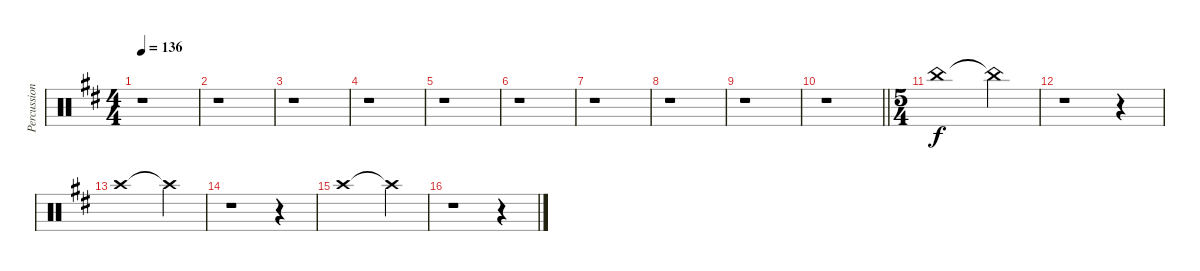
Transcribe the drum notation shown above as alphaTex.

\track ("Percussion" "Percussion") {instrument percussion}
\staff {score}
\articulation defaults
\ts (4 4)
\tempo 136
\clef neutral
\ks d
r.1{dy f} |
r.1 |
r.1 |
r.1 |
r.1 |
r.1 |
r.1 |
r.1 |
r.1 |
\barLineRight lightlight
r.1 |
\ts (5 4)
"China (hit)".1 "China (hit)"{t}.4 |
r.1 r.4 |
"Crash high (hit)".1 "Crash high (hit)"{t}.4 |
r.1 r.4 |
"Crash high (hit)".1 "Crash high (hit)"{t}.4 |
r.1 r.4
